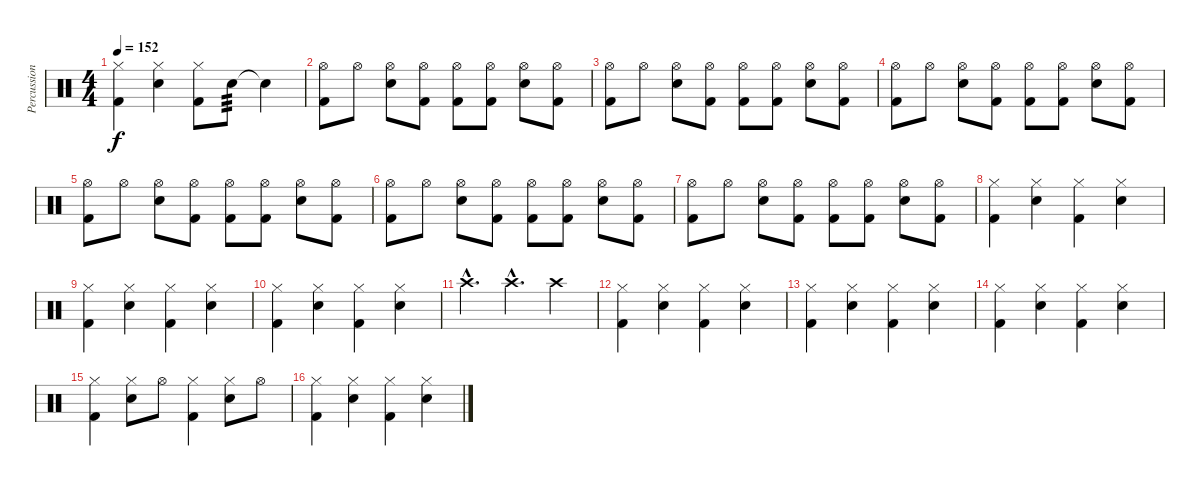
\track ("Percussion" "Percussion") {instrument percussion}
\staff {score}
\articulation defaults
\ts (4 4)
\tempo 152
\clef neutral
\ks c
("Kick (hit) 2" "Hi-Hat (closed)").4{dy f} ("Snare (hit) 2" "Hi-Hat (closed)").4 ("Kick (hit) 2" "Hi-Hat (closed)").8 "Snare (hit) 2".8{tp 3} "Snare (hit)"{t}.4 |
("Kick (hit) 2" "Hi-Hat (open)").8 "Hi-Hat (open)".8 ("Snare (hit) 2" "Hi-Hat (open)").8 ("Kick (hit) 2" "Hi-Hat (open)").8 ("Kick (hit) 2" "Hi-Hat (open)").8 ("Kick (hit) 2" "Hi-Hat (open)").8 ("Snare (hit) 2" "Hi-Hat (open)").8 ("Kick (hit) 2" "Hi-Hat (open)").8 |
("Kick (hit) 2" "Hi-Hat (open)").8 "Hi-Hat (open)".8 ("Snare (hit) 2" "Hi-Hat (open)").8 ("Kick (hit) 2" "Hi-Hat (open)").8 ("Kick (hit) 2" "Hi-Hat (open)").8 ("Kick (hit) 2" "Hi-Hat (open)").8 ("Snare (hit) 2" "Hi-Hat (open)").8 ("Kick (hit) 2" "Hi-Hat (open)").8 |
("Kick (hit) 2" "Hi-Hat (open)").8 "Hi-Hat (open)".8 ("Snare (hit) 2" "Hi-Hat (open)").8 ("Kick (hit) 2" "Hi-Hat (open)").8 ("Kick (hit) 2" "Hi-Hat (open)").8 ("Kick (hit) 2" "Hi-Hat (open)").8 ("Snare (hit) 2" "Hi-Hat (open)").8 ("Kick (hit) 2" "Hi-Hat (open)").8 |
("Kick (hit) 2" "Hi-Hat (open)").8 "Hi-Hat (open)".8 ("Snare (hit) 2" "Hi-Hat (open)").8 ("Kick (hit) 2" "Hi-Hat (open)").8 ("Kick (hit) 2" "Hi-Hat (open)").8 ("Kick (hit) 2" "Hi-Hat (open)").8 ("Snare (hit) 2" "Hi-Hat (open)").8 ("Kick (hit) 2" "Hi-Hat (open)").8 |
("Kick (hit) 2" "Hi-Hat (open)").8 "Hi-Hat (open)".8 ("Snare (hit) 2" "Hi-Hat (open)").8 ("Kick (hit) 2" "Hi-Hat (open)").8 ("Kick (hit) 2" "Hi-Hat (open)").8 ("Kick (hit) 2" "Hi-Hat (open)").8 ("Snare (hit) 2" "Hi-Hat (open)").8 ("Kick (hit) 2" "Hi-Hat (open)").8 |
("Kick (hit) 2" "Hi-Hat (open)").8 "Hi-Hat (open)".8 ("Snare (hit) 2" "Hi-Hat (open)").8 ("Kick (hit) 2" "Hi-Hat (open)").8 ("Kick (hit) 2" "Hi-Hat (open)").8 ("Kick (hit) 2" "Hi-Hat (open)").8 ("Snare (hit) 2" "Hi-Hat (open)").8 ("Kick (hit) 2" "Hi-Hat (open)").8 |
("Kick (hit) 2" "Hi-Hat (closed)").4 ("Snare (hit) 2" "Hi-Hat (closed)").4 ("Kick (hit) 2" "Hi-Hat (closed)").4 ("Snare (hit) 2" "Hi-Hat (closed)").4 |
("Kick (hit) 2" "Hi-Hat (closed)").4 ("Snare (hit) 2" "Hi-Hat (closed)").4 ("Kick (hit) 2" "Hi-Hat (closed)").4 ("Snare (hit) 2" "Hi-Hat (closed)").4 |
("Kick (hit) 2" "Hi-Hat (closed)").4 ("Snare (hit) 2" "Hi-Hat (closed)").4 ("Kick (hit) 2" "Hi-Hat (closed)").4 ("Snare (hit) 2" "Hi-Hat (closed)").4 |
"Crash high (hit)"{hac}.4{d} "Crash high (hit)"{hac}.4{d} "Crash high (hit)".4 |
("Kick (hit) 2" "Hi-Hat (closed)").4 ("Snare (hit) 2" "Hi-Hat (closed)").4 ("Kick (hit) 2" "Hi-Hat (closed)").4 ("Snare (hit) 2" "Hi-Hat (closed)").4 |
("Kick (hit) 2" "Hi-Hat (closed)").4 ("Snare (hit) 2" "Hi-Hat (closed)").4 ("Kick (hit) 2" "Hi-Hat (closed)").4 ("Snare (hit) 2" "Hi-Hat (closed)").4 |
("Kick (hit) 2" "Hi-Hat (closed)").4 ("Snare (hit) 2" "Hi-Hat (closed)").4 ("Kick (hit) 2" "Hi-Hat (closed)").4 ("Snare (hit) 2" "Hi-Hat (closed)").4 |
("Kick (hit) 2" "Hi-Hat (closed)").4 ("Snare (hit) 2" "Hi-Hat (closed)").8 "Hi-Hat (open)".8 ("Kick (hit) 2" "Hi-Hat (closed)").4 ("Snare (hit) 2" "Hi-Hat (closed)").8 "Hi-Hat (open)".8 |
("Kick (hit) 2" "Hi-Hat (closed)").4 ("Snare (hit) 2" "Hi-Hat (closed)").4 ("Kick (hit) 2" "Hi-Hat (closed)").4 ("Snare (hit) 2" "Hi-Hat (closed)").4
